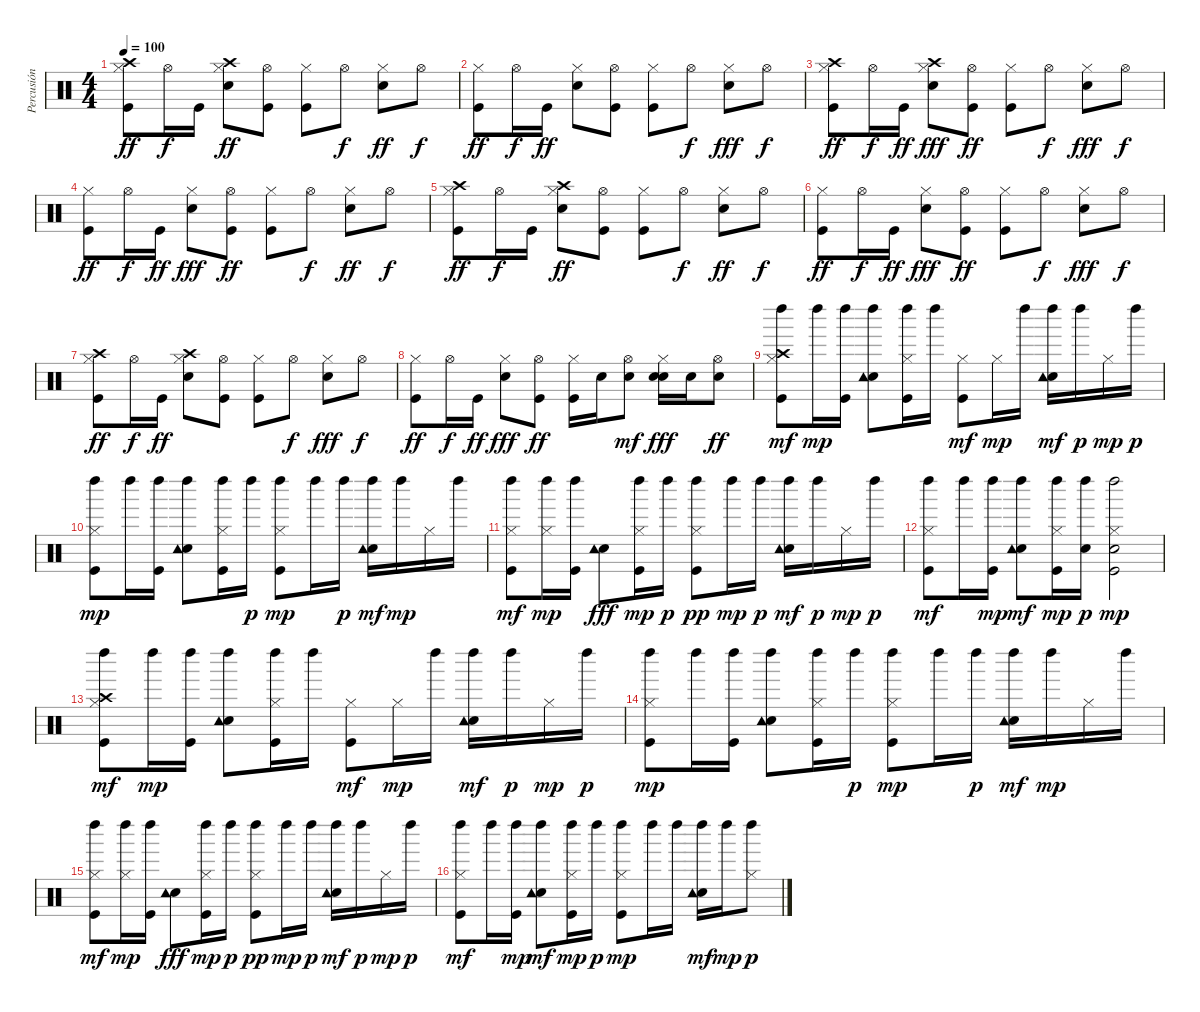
\track ("Percusión" "Percusión") {instrument percussion}
\staff {score}
\articulation defaults
\ts (4 4)
\tempo 100
\clef neutral
\ks c
("Kick (hit)" "Hi-Hat (closed)" "Crash high (hit)").8{dy ff} "Hi-Hat (open)".16{dy f} "Kick (hit)".16 ("Snare (hit) 2" "Hi-Hat (closed)" "Crash high (hit)").8{dy ff} ("Kick (hit)" "Hi-Hat (open)").8 ("Kick (hit)" "Hi-Hat (closed)").8 "Hi-Hat (open)".8{dy f} ("Snare (hit) 2" "Hi-Hat (closed)").8{dy ff} "Hi-Hat (open)".8{dy f} |
("Kick (hit)" "Hi-Hat (closed)").8{dy ff} "Hi-Hat (open)".16{dy f} "Kick (hit)".16{dy ff} ("Snare (hit) 2" "Hi-Hat (closed)").8 ("Kick (hit)" "Hi-Hat (open)").8 ("Kick (hit)" "Hi-Hat (closed)").8 "Hi-Hat (open)".8{dy f} ("Snare (hit) 2" "Hi-Hat (closed)").8{dy fff} "Hi-Hat (open)".8{dy f} |
("Kick (hit)" "Hi-Hat (closed)" "Crash high (hit)").8{dy ff} "Hi-Hat (open)".16{dy f} "Kick (hit)".16{dy ff} ("Snare (hit) 2" "Hi-Hat (closed)" "Crash high (hit)").8{dy fff} ("Kick (hit)" "Hi-Hat (open)").8{dy ff} ("Kick (hit)" "Hi-Hat (closed)").8 "Hi-Hat (open)".8{dy f} ("Snare (hit) 2" "Hi-Hat (closed)").8{dy fff} "Hi-Hat (open)".8{dy f} |
("Kick (hit)" "Hi-Hat (closed)").8{dy ff} "Hi-Hat (open)".16{dy f} "Kick (hit)".16{dy ff} ("Snare (hit) 2" "Hi-Hat (closed)").8{dy fff} ("Kick (hit)" "Hi-Hat (open)").8{dy ff} ("Kick (hit)" "Hi-Hat (closed)").8 "Hi-Hat (open)".8{dy f} ("Snare (hit) 2" "Hi-Hat (closed)").8{dy ff} "Hi-Hat (open)".8{dy f} |
("Kick (hit)" "Hi-Hat (closed)" "Crash high (hit)").8{dy ff} "Hi-Hat (open)".16{dy f} "Kick (hit)".16 ("Snare (hit) 2" "Hi-Hat (closed)" "Crash high (hit)").8{dy ff} ("Kick (hit)" "Hi-Hat (open)").8 ("Kick (hit)" "Hi-Hat (closed)").8 "Hi-Hat (open)".8{dy f} ("Snare (hit) 2" "Hi-Hat (closed)").8{dy ff} "Hi-Hat (open)".8{dy f} |
("Kick (hit)" "Hi-Hat (closed)").8{dy ff} "Hi-Hat (open)".16{dy f} "Kick (hit)".16{dy ff} ("Snare (hit) 2" "Hi-Hat (closed)").8{dy fff} ("Kick (hit)" "Hi-Hat (open)").8{dy ff} ("Kick (hit)" "Hi-Hat (closed)").8 "Hi-Hat (open)".8{dy f} ("Snare (hit) 2" "Hi-Hat (closed)").8{dy fff} "Hi-Hat (open)".8{dy f} |
("Kick (hit)" "Hi-Hat (closed)" "Crash high (hit)").8{dy ff} "Hi-Hat (open)".16{dy f} "Kick (hit)".16{dy ff} ("Snare (hit) 2" "Hi-Hat (closed)" "Crash high (hit)").8 ("Kick (hit)" "Hi-Hat (open)").8 ("Kick (hit)" "Hi-Hat (closed)").8 "Hi-Hat (open)".8{dy f} ("Snare (hit) 2" "Hi-Hat (closed)").8{dy fff} "Hi-Hat (open)".8{dy f} |
("Kick (hit)" "Hi-Hat (closed)").8{dy ff} "Hi-Hat (open)".16{dy f} "Kick (hit)".16{dy ff} ("Snare (hit) 2" "Hi-Hat (closed)").8{dy fff} ("Kick (hit)" "Hi-Hat (open)").8{dy ff} ("Kick (hit)" "Hi-Hat (closed)").16 "Electric Snare (hit)".16 ("Electric Snare (hit)" "Hi-Hat (open)").8{dy mf} ("Snare (hit) 2" "Electric Snare (hit)" "Hi-Hat (closed)").16{dy fff} "Electric Snare (hit)".16 ("Electric Snare (hit)" "Hi-Hat (open)").8{dy ff} |
("Kick (hit)" "Hi-Hat (closed)" "Crash high (hit)" "Left Maraca (hit)").8{dy mf} "Left Maraca (hit)".16{dy mp} ("Kick (hit)" "Left Maraca (hit)").16 ("Snare (hit) 2" "Tambourine (hit)" "Left Maraca (hit)").8 ("Kick (hit)" "Hi-Hat (closed)" "Left Maraca (hit)").16 "Left Maraca (hit)".16 ("Kick (hit)" "Hi-Hat (closed)").8{dy mf} "Hi-Hat (closed)".16{dy mp} "Left Maraca (hit)".16 ("Snare (hit) 2" "Tambourine (hit)" "Left Maraca (hit)").16{dy mf} "Left Maraca (hit)".16{dy p} "Hi-Hat (closed)".16{dy mp} "Left Maraca (hit)".16{dy p} |
("Kick (hit)" "Hi-Hat (closed)" "Left Maraca (hit)").8{dy mp} "Left Maraca (hit)".16 ("Kick (hit)" "Left Maraca (hit)").16 ("Snare (hit) 2" "Tambourine (hit)" "Left Maraca (hit)").8 ("Kick (hit)" "Hi-Hat (closed)" "Left Maraca (hit)").16 "Left Maraca (hit)".16{dy p} ("Kick (hit)" "Hi-Hat (closed)" "Left Maraca (hit)").8{dy mp} "Left Maraca (hit)".16 "Left Maraca (hit)".16{dy p} ("Snare (hit) 2" "Tambourine (hit)" "Left Maraca (hit)").16{dy mf} "Left Maraca (hit)".16{dy mp} "Hi-Hat (closed)".16 "Left Maraca (hit)".16 |
("Kick (hit)" "Hi-Hat (closed)" "Left Maraca (hit)").8{dy mf} ("Hi-Hat (closed)" "Left Maraca (hit)").16{dy mp} ("Kick (hit)" "Left Maraca (hit)").16 ("Snare (hit) 2" "Tambourine (hit)").8{dy fff} ("Kick (hit)" "Hi-Hat (closed)" "Left Maraca (hit)").16{dy mp} "Left Maraca (hit)".16{dy p} ("Kick (hit)" "Hi-Hat (closed)" "Left Maraca (hit)").8{dy pp} "Left Maraca (hit)".16{dy mp} "Left Maraca (hit)".16{dy p} ("Snare (hit) 2" "Tambourine (hit)" "Left Maraca (hit)").16{dy mf} "Left Maraca (hit)".16{dy p} "Hi-Hat (closed)".16{dy mp} "Left Maraca (hit)".16{dy p} |
("Kick (hit)" "Hi-Hat (closed)" "Left Maraca (hit)").8{dy mf} "Left Maraca (hit)".16 ("Kick (hit)" "Left Maraca (hit)").16{dy mp} ("Snare (hit) 2" "Tambourine (hit)" "Left Maraca (hit)").8{dy mf} ("Kick (hit)" "Hi-Hat (closed)" "Left Maraca (hit)").16{dy mp} ("Left Maraca (hit)" "Snare (hit) 2").16{dy p} ("Kick (hit)" "Snare (hit) 2" "Hi-Hat (closed)" "Left Maraca (hit)").2{dy mp} |
("Kick (hit)" "Hi-Hat (closed)" "Crash high (hit)" "Left Maraca (hit)").8{dy mf} "Left Maraca (hit)".16{dy mp} ("Kick (hit)" "Left Maraca (hit)").16 ("Snare (hit) 2" "Tambourine (hit)" "Left Maraca (hit)").8 ("Kick (hit)" "Hi-Hat (closed)" "Left Maraca (hit)").16 "Left Maraca (hit)".16 ("Kick (hit)" "Hi-Hat (closed)").8{dy mf} "Hi-Hat (closed)".16{dy mp} "Left Maraca (hit)".16 ("Snare (hit) 2" "Tambourine (hit)" "Left Maraca (hit)").16{dy mf} "Left Maraca (hit)".16{dy p} "Hi-Hat (closed)".16{dy mp} "Left Maraca (hit)".16{dy p} |
("Kick (hit)" "Hi-Hat (closed)" "Left Maraca (hit)").8{dy mp} "Left Maraca (hit)".16 ("Kick (hit)" "Left Maraca (hit)").16 ("Snare (hit) 2" "Tambourine (hit)" "Left Maraca (hit)").8 ("Kick (hit)" "Hi-Hat (closed)" "Left Maraca (hit)").16 "Left Maraca (hit)".16{dy p} ("Kick (hit)" "Hi-Hat (closed)" "Left Maraca (hit)").8{dy mp} "Left Maraca (hit)".16 "Left Maraca (hit)".16{dy p} ("Snare (hit) 2" "Tambourine (hit)" "Left Maraca (hit)").16{dy mf} "Left Maraca (hit)".16{dy mp} "Hi-Hat (closed)".16 "Left Maraca (hit)".16 |
("Kick (hit)" "Hi-Hat (closed)" "Left Maraca (hit)").8{dy mf} ("Hi-Hat (closed)" "Left Maraca (hit)").16{dy mp} ("Kick (hit)" "Left Maraca (hit)").16 ("Snare (hit) 2" "Tambourine (hit)").8{dy fff} ("Kick (hit)" "Hi-Hat (closed)" "Left Maraca (hit)").16{dy mp} "Left Maraca (hit)".16{dy p} ("Kick (hit)" "Hi-Hat (closed)" "Left Maraca (hit)").8{dy pp} "Left Maraca (hit)".16{dy mp} "Left Maraca (hit)".16{dy p} ("Snare (hit) 2" "Tambourine (hit)" "Left Maraca (hit)").16{dy mf} "Left Maraca (hit)".16{dy p} "Hi-Hat (closed)".16{dy mp} "Left Maraca (hit)".16{dy p} |
("Kick (hit)" "Hi-Hat (closed)" "Left Maraca (hit)").8{dy mf} "Left Maraca (hit)".16 ("Kick (hit)" "Left Maraca (hit)").16{dy mp} ("Snare (hit) 2" "Tambourine (hit)" "Left Maraca (hit)").8{dy mf} ("Kick (hit)" "Hi-Hat (closed)" "Left Maraca (hit)").16{dy mp} "Left Maraca (hit)".16{dy p} ("Kick (hit)" "Hi-Hat (closed)" "Left Maraca (hit)").8{dy mp} "Left Maraca (hit)".16 "Left Maraca (hit)".16 ("Snare (hit) 2" "Tambourine (hit)" "Left Maraca (hit)").16{dy mf} "Left Maraca (hit)".16{dy mp} ("Hi-Hat (closed)" "Left Maraca (hit)").8{dy p}
